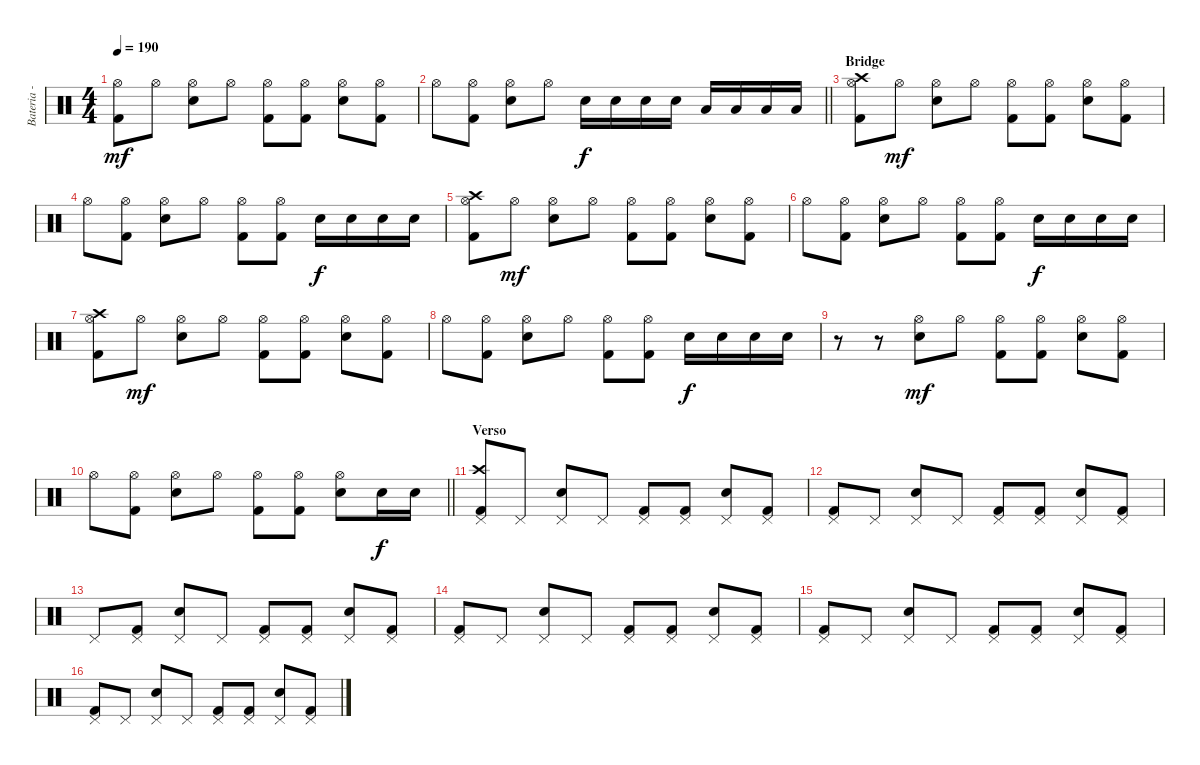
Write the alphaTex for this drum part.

\track ("Bateria - Larzon" "Bateria - ") {instrument percussion}
\staff {score}
\articulation defaults
\ts (4 4)
\tempo 190
\clef neutral
\ks c
("Kick (hit) 2" "Hi-Hat (open)").8{dy mf} "Hi-Hat (open)".8 ("Electric Snare (hit)" "Hi-Hat (open)").8 "Hi-Hat (open)".8 ("Kick (hit) 2" "Hi-Hat (open)").8 ("Kick (hit) 2" "Hi-Hat (open)").8 ("Electric Snare (hit)" "Hi-Hat (open)").8 ("Kick (hit) 2" "Hi-Hat (open)").8 |
\barLineRight lightlight "Hi-Hat (open)".8
("Kick (hit) 2" "Hi-Hat (open)").8 ("Electric Snare (hit)" "Hi-Hat (open)").8 "Hi-Hat (open)".8 "Electric Snare (hit)".16{dy f} "Electric Snare (hit)".16 "Electric Snare (hit)".16 "Electric Snare (hit)".16 "Low Tom (hit)".16 "Low Tom (hit)".16 "Low Tom (hit)".16 "Low Tom (hit)".16 |
\section ("" "Bridge")
("Kick (hit) 2" "Hi-Hat (open)" "Crash high (hit)").8 "Hi-Hat (open)".8{dy mf} ("Electric Snare (hit)" "Hi-Hat (open)").8 "Hi-Hat (open)".8 ("Kick (hit) 2" "Hi-Hat (open)").8 ("Kick (hit) 2" "Hi-Hat (open)").8 ("Electric Snare (hit)" "Hi-Hat (open)").8 ("Kick (hit) 2" "Hi-Hat (open)").8 |
"Hi-Hat (open)".8 ("Kick (hit) 2" "Hi-Hat (open)").8 ("Electric Snare (hit)" "Hi-Hat (open)").8 "Hi-Hat (open)".8 ("Kick (hit) 2" "Hi-Hat (open)").8 ("Kick (hit) 2" "Hi-Hat (open)").8 "Electric Snare (hit)".16{dy f} "Electric Snare (hit)".16 "Electric Snare (hit)".16 "Electric Snare (hit)".16 |
("Kick (hit) 2" "Hi-Hat (open)" "Crash high (hit)").8 "Hi-Hat (open)".8{dy mf} ("Electric Snare (hit)" "Hi-Hat (open)").8 "Hi-Hat (open)".8 ("Kick (hit) 2" "Hi-Hat (open)").8 ("Kick (hit) 2" "Hi-Hat (open)").8 ("Electric Snare (hit)" "Hi-Hat (open)").8 ("Kick (hit) 2" "Hi-Hat (open)").8 |
"Hi-Hat (open)".8 ("Kick (hit) 2" "Hi-Hat (open)").8 ("Electric Snare (hit)" "Hi-Hat (open)").8 "Hi-Hat (open)".8 ("Kick (hit) 2" "Hi-Hat (open)").8 ("Kick (hit) 2" "Hi-Hat (open)").8 "Electric Snare (hit)".16{dy f} "Electric Snare (hit)".16 "Electric Snare (hit)".16 "Electric Snare (hit)".16 |
("Kick (hit) 2" "Hi-Hat (open)" "Crash high (hit)").8 "Hi-Hat (open)".8{dy mf} ("Electric Snare (hit)" "Hi-Hat (open)").8 "Hi-Hat (open)".8 ("Kick (hit) 2" "Hi-Hat (open)").8 ("Kick (hit) 2" "Hi-Hat (open)").8 ("Electric Snare (hit)" "Hi-Hat (open)").8 ("Kick (hit) 2" "Hi-Hat (open)").8 |
"Hi-Hat (open)".8 ("Kick (hit) 2" "Hi-Hat (open)").8 ("Electric Snare (hit)" "Hi-Hat (open)").8 "Hi-Hat (open)".8 ("Kick (hit) 2" "Hi-Hat (open)").8 ("Kick (hit) 2" "Hi-Hat (open)").8 "Electric Snare (hit)".16{dy f} "Electric Snare (hit)".16 "Electric Snare (hit)".16 "Electric Snare (hit)".16 |
r.8 r.8 ("Electric Snare (hit)" "Hi-Hat (open)").8{dy mf} "Hi-Hat (open)".8 ("Kick (hit) 2" "Hi-Hat (open)").8 ("Kick (hit) 2" "Hi-Hat (open)").8 ("Electric Snare (hit)" "Hi-Hat (open)").8 ("Kick (hit) 2" "Hi-Hat (open)").8 |
\barLineRight lightlight "Hi-Hat (open)".8
("Kick (hit) 2" "Hi-Hat (open)").8 ("Electric Snare (hit)" "Hi-Hat (open)").8 "Hi-Hat (open)".8 ("Kick (hit) 2" "Hi-Hat (open)").8 ("Kick (hit) 2" "Hi-Hat (open)").8 ("Electric Snare (hit)" "Hi-Hat (open)").8 "Electric Snare (hit)".16{dy f} "Electric Snare (hit)".16 |
\section ("" "Verso")
("Kick (hit) 2" "Pedal Hi-Hat (hit)" "Crash high (hit)").8 "Pedal Hi-Hat (hit)".8 ("Electric Snare (hit)" "Pedal Hi-Hat (hit)").8 "Pedal Hi-Hat (hit)".8 ("Kick (hit) 2" "Pedal Hi-Hat (hit)").8 ("Kick (hit) 2" "Pedal Hi-Hat (hit)").8 ("Electric Snare (hit)" "Pedal Hi-Hat (hit)").8 ("Kick (hit) 2" "Pedal Hi-Hat (hit)").8 |
("Kick (hit) 2" "Pedal Hi-Hat (hit)").8 "Pedal Hi-Hat (hit)".8 ("Electric Snare (hit)" "Pedal Hi-Hat (hit)").8 "Pedal Hi-Hat (hit)".8 ("Kick (hit) 2" "Pedal Hi-Hat (hit)").8 ("Kick (hit) 2" "Pedal Hi-Hat (hit)").8 ("Electric Snare (hit)" "Pedal Hi-Hat (hit)").8 ("Kick (hit) 2" "Pedal Hi-Hat (hit)").8 |
"Pedal Hi-Hat (hit)".8 ("Kick (hit) 2" "Pedal Hi-Hat (hit)").8 ("Electric Snare (hit)" "Pedal Hi-Hat (hit)").8 "Pedal Hi-Hat (hit)".8 ("Kick (hit) 2" "Pedal Hi-Hat (hit)").8 ("Kick (hit) 2" "Pedal Hi-Hat (hit)").8 ("Electric Snare (hit)" "Pedal Hi-Hat (hit)").8 ("Kick (hit) 2" "Pedal Hi-Hat (hit)").8 |
("Kick (hit) 2" "Pedal Hi-Hat (hit)").8 "Pedal Hi-Hat (hit)".8 ("Electric Snare (hit)" "Pedal Hi-Hat (hit)").8 "Pedal Hi-Hat (hit)".8 ("Kick (hit) 2" "Pedal Hi-Hat (hit)").8 ("Kick (hit) 2" "Pedal Hi-Hat (hit)").8 ("Electric Snare (hit)" "Pedal Hi-Hat (hit)").8 ("Kick (hit) 2" "Pedal Hi-Hat (hit)").8 |
("Kick (hit) 2" "Pedal Hi-Hat (hit)").8 "Pedal Hi-Hat (hit)".8 ("Electric Snare (hit)" "Pedal Hi-Hat (hit)").8 "Pedal Hi-Hat (hit)".8 ("Kick (hit) 2" "Pedal Hi-Hat (hit)").8 ("Kick (hit) 2" "Pedal Hi-Hat (hit)").8 ("Electric Snare (hit)" "Pedal Hi-Hat (hit)").8 ("Kick (hit) 2" "Pedal Hi-Hat (hit)").8 |
("Kick (hit) 2" "Pedal Hi-Hat (hit)").8 "Pedal Hi-Hat (hit)".8 ("Electric Snare (hit)" "Pedal Hi-Hat (hit)").8 "Pedal Hi-Hat (hit)".8 ("Kick (hit) 2" "Pedal Hi-Hat (hit)").8 ("Kick (hit) 2" "Pedal Hi-Hat (hit)").8 ("Electric Snare (hit)" "Pedal Hi-Hat (hit)").8 ("Kick (hit) 2" "Pedal Hi-Hat (hit)").8
